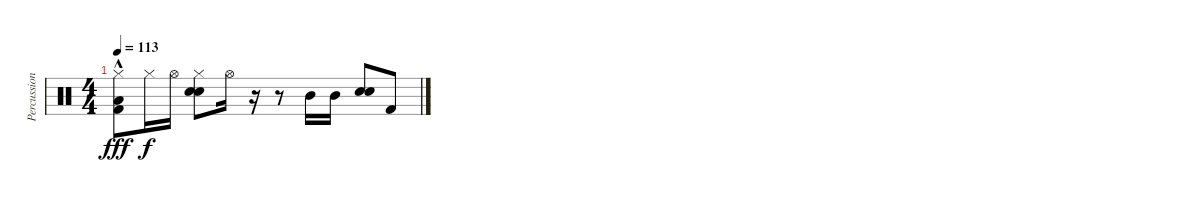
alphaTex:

\track ("Percussion Overdub" "Percussion") {instrument percussion}
\staff {score}
\articulation defaults
\ts (4 4)
\tempo 113
\clef neutral
\ks c
("Hi-Hat (closed)" "Low Tom (hit)"{hac} "Kick (hit) 2").8{dy fff} "Hi-Hat (closed)".16{dy f} "Hi-Hat (open)".16 ("Hi-Hat (closed)" "Hand Clap (hit)" "Electric Snare (hit)").8 "Hi-Hat (open)".16 r.16 r.8 "Mid Tom (hit)".16 "Mid Tom (hit)".16 ("Hand Clap (hit)" "Electric Snare (hit)").8 "Kick (hit) 2".8
